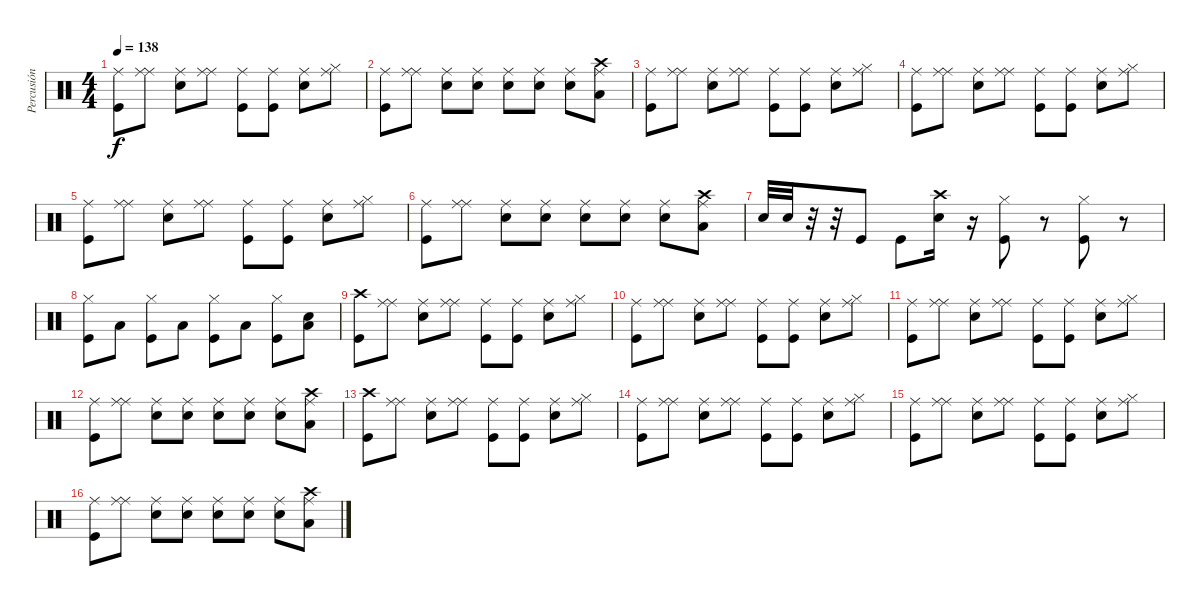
\track ("Percusión" "Percusión") {instrument percussion}
\staff {score}
\articulation defaults
\ts (4 4)
\tempo 138
\clef neutral
\ks c
("Ride (middle)" "Kick (hit)").8{dy f} ("Ride (middle)" "Ride (middle)").8 ("Ride (middle)" "Snare (hit) 2").8 ("Ride (middle)" "Ride (middle)").8 ("Ride (middle)" "Kick (hit)").8 ("Ride (middle)" "Kick (hit)").8 ("Ride (middle)" "Snare (hit) 2").8 ("Ride (middle)" "Hi-Hat (closed)").8 |
("Ride (middle)" "Kick (hit)").8 ("Ride (middle)" "Ride (middle)").8 ("Ride (middle)" "Snare (hit) 2").8 ("Ride (middle)" "Snare (hit) 2").8 ("Ride (middle)" "Snare (hit) 2").8 ("Ride (middle)" "Snare (hit) 2").8 ("Ride (middle)" "Snare (hit) 2").8 ("Ride (middle)" "Low Tom (hit)" "Crash high (hit)").8 |
("Ride (middle)" "Kick (hit)").8 ("Ride (middle)" "Ride (middle)").8 ("Ride (middle)" "Snare (hit) 2").8 ("Ride (middle)" "Ride (middle)").8 ("Ride (middle)" "Kick (hit)").8 ("Ride (middle)" "Kick (hit)").8 ("Ride (middle)" "Snare (hit) 2").8 ("Ride (middle)" "Hi-Hat (closed)").8 |
("Ride (middle)" "Kick (hit)").8 ("Ride (middle)" "Ride (middle)").8 ("Ride (middle)" "Snare (hit) 2").8 ("Ride (middle)" "Ride (middle)").8 ("Ride (middle)" "Kick (hit)").8 ("Ride (middle)" "Kick (hit)").8 ("Ride (middle)" "Snare (hit) 2").8 ("Ride (middle)" "Hi-Hat (closed)").8 |
("Ride (middle)" "Kick (hit)").8 ("Ride (middle)" "Ride (middle)").8 ("Ride (middle)" "Snare (hit) 2").8 ("Ride (middle)" "Ride (middle)").8 ("Ride (middle)" "Kick (hit)").8 ("Ride (middle)" "Kick (hit)").8 ("Ride (middle)" "Snare (hit) 2").8 ("Ride (middle)" "Hi-Hat (closed)").8 |
("Ride (middle)" "Kick (hit)").8 ("Ride (middle)" "Ride (middle)").8 ("Ride (middle)" "Snare (hit) 2").8 ("Ride (middle)" "Snare (hit) 2").8 ("Ride (middle)" "Snare (hit) 2").8 ("Ride (middle)" "Snare (hit) 2").8 ("Ride (middle)" "Snare (hit) 2").8 ("Ride (middle)" "Low Tom (hit)" "Crash high (hit)").8 |
"Snare (hit) 2".32 "Snare (hit) 2".32 r.32 r.32 "Kick (hit)".8 "Kick (hit)".8 ("Crash high (hit)" "Snare (hit) 2").16 r.16 ("Hi-Hat (closed)" "Kick (hit)").8 r.8 ("Hi-Hat (closed)" "Kick (hit)").8 r.8 |
("Hi-Hat (closed)" "Kick (hit)").8 "Low Tom (hit)".8 ("Hi-Hat (closed)" "Kick (hit)").8 "Low Floor Tom (hit)".8 ("Hi-Hat (closed)" "Kick (hit)").8 "Low Floor Tom (hit)".8 ("Hi-Hat (closed)" "Kick (hit)").8 ("Low Floor Tom (hit)" "Snare (hit) 2").8 |
("Crash high (hit)" "Kick (hit)").8 ("Ride (middle)" "Ride (middle)").8 ("Ride (middle)" "Snare (hit) 2").8 ("Ride (middle)" "Ride (middle)").8 ("Ride (middle)" "Kick (hit)").8 ("Ride (middle)" "Kick (hit)").8 ("Ride (middle)" "Snare (hit) 2").8 ("Ride (middle)" "Hi-Hat (closed)").8 |
("Ride (middle)" "Kick (hit)").8 ("Ride (middle)" "Ride (middle)").8 ("Ride (middle)" "Snare (hit) 2").8 ("Ride (middle)" "Ride (middle)").8 ("Ride (middle)" "Kick (hit)").8 ("Ride (middle)" "Kick (hit)").8 ("Ride (middle)" "Snare (hit) 2").8 ("Ride (middle)" "Hi-Hat (closed)").8 |
("Ride (middle)" "Kick (hit)").8 ("Ride (middle)" "Ride (middle)").8 ("Ride (middle)" "Snare (hit) 2").8 ("Ride (middle)" "Ride (middle)").8 ("Ride (middle)" "Kick (hit)").8 ("Ride (middle)" "Kick (hit)").8 ("Ride (middle)" "Snare (hit) 2").8 ("Ride (middle)" "Hi-Hat (closed)").8 |
("Ride (middle)" "Kick (hit)").8 ("Ride (middle)" "Ride (middle)").8 ("Ride (middle)" "Snare (hit) 2").8 ("Ride (middle)" "Snare (hit) 2").8 ("Ride (middle)" "Snare (hit) 2").8 ("Ride (middle)" "Snare (hit) 2").8 ("Ride (middle)" "Snare (hit) 2").8 ("Ride (middle)" "Low Tom (hit)" "Crash high (hit)").8 |
("Crash high (hit)" "Kick (hit)").8 ("Ride (middle)" "Ride (middle)").8 ("Ride (middle)" "Snare (hit) 2").8 ("Ride (middle)" "Ride (middle)").8 ("Ride (middle)" "Kick (hit)").8 ("Ride (middle)" "Kick (hit)").8 ("Ride (middle)" "Snare (hit) 2").8 ("Ride (middle)" "Hi-Hat (closed)").8 |
("Ride (middle)" "Kick (hit)").8 ("Ride (middle)" "Ride (middle)").8 ("Ride (middle)" "Snare (hit) 2").8 ("Ride (middle)" "Ride (middle)").8 ("Ride (middle)" "Kick (hit)").8 ("Ride (middle)" "Kick (hit)").8 ("Ride (middle)" "Snare (hit) 2").8 ("Ride (middle)" "Hi-Hat (closed)").8 |
("Ride (middle)" "Kick (hit)").8 ("Ride (middle)" "Ride (middle)").8 ("Ride (middle)" "Snare (hit) 2").8 ("Ride (middle)" "Ride (middle)").8 ("Ride (middle)" "Kick (hit)").8 ("Ride (middle)" "Kick (hit)").8 ("Ride (middle)" "Snare (hit) 2").8 ("Ride (middle)" "Hi-Hat (closed)").8 |
("Ride (middle)" "Kick (hit)").8 ("Ride (middle)" "Ride (middle)").8 ("Ride (middle)" "Snare (hit) 2").8 ("Ride (middle)" "Snare (hit) 2").8 ("Ride (middle)" "Snare (hit) 2").8 ("Ride (middle)" "Snare (hit) 2").8 ("Ride (middle)" "Snare (hit) 2").8 ("Ride (middle)" "Low Tom (hit)" "Crash high (hit)").8
